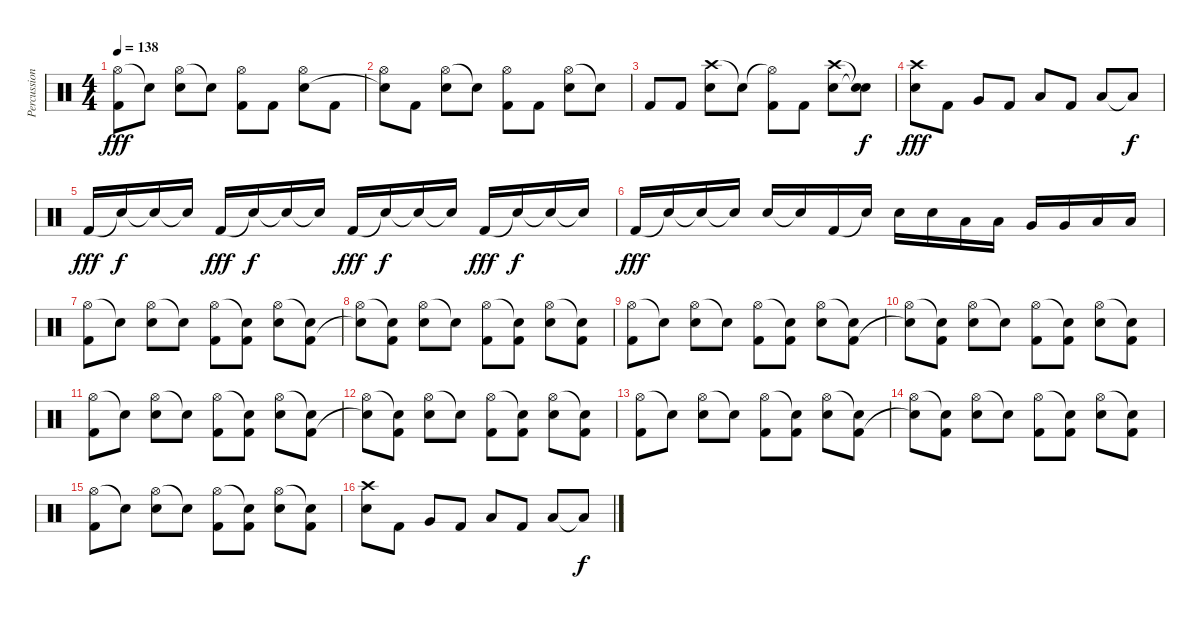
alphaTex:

\track ("Percussion" "Percussion") {instrument percussion}
\staff {score}
\articulation defaults
\ts (4 4)
\tempo 138
\clef neutral
\ks c
("Hi-Hat (open)" "Kick (hit) 2").8{dy fff} "Snare (hit)"{t}.8 ("Hi-Hat (open)" "Electric Snare (hit)").8 "Snare (hit)"{t}.8 ("Hi-Hat (open)" "Kick (hit) 2").8 "Kick (hit) 2".8 ("Hi-Hat (open)" "Electric Snare (hit)").8 "Kick (hit) 2".8 |
("Hi-Hat (open)" "Snare (hit)"{t}).8 "Kick (hit) 2".8 ("Hi-Hat (open)" "Electric Snare (hit)").8 "Snare (hit)"{t}.8 ("Hi-Hat (open)" "Kick (hit) 2").8 "Kick (hit) 2".8 ("Hi-Hat (open)" "Electric Snare (hit)").8 "Snare (hit)"{t}.8 |
"Kick (hit) 2".8 "Kick (hit) 2".8 ("Crash high (hit)" "Electric Snare (hit)").8 "Snare (hit)"{t}.8 ("Hi-Hat (open)"{t} "Kick (hit) 2").8 "Kick (hit) 2".8 ("Crash high (hit)" "Electric Snare (hit)").8 ("Snare (hit)"{t} "Snare (hit)"{t}).8{dy f} |
("Crash high (hit)" "Electric Snare (hit)").8{dy fff} "Kick (hit) 2".8 "Very Low Tom (hit)".8 "Kick (hit) 2".8 "Low Floor Tom (hit)".8 "Kick (hit) 2".8 "Low Floor Tom (hit)".8 "Low Floor Tom (hit)"{t}.8{dy f} |
"Kick (hit) 2".16{dy fff} "Snare (hit)"{t}.16{dy f} "Snare (hit)"{t}.16 "Snare (hit)"{t}.16 "Kick (hit) 2".16{dy fff} "Snare (hit)"{t}.16{dy f} "Snare (hit)"{t}.16 "Snare (hit)"{t}.16 "Kick (hit) 2".16{dy fff} "Snare (hit)"{t}.16{dy f} "Snare (hit)"{t}.16 "Snare (hit)"{t}.16 "Kick (hit) 2".16{dy fff} "Snare (hit)"{t}.16{dy f} "Snare (hit)"{t}.16 "Snare (hit)"{t}.16 |
"Kick (hit) 2".16{dy fff} "Snare (hit)"{t}.16 "Snare (hit)"{t}.16 "Snare (hit)"{t}.16 "Electric Snare (hit)".16 "Snare (hit)"{t}.16 "Kick (hit) 2".16 "Snare (hit)"{t}.16 "Electric Snare (hit)".16 "Electric Snare (hit)".16 "Low Floor Tom (hit)".16 "Low Floor Tom (hit)".16 "Very Low Tom (hit)".16 "Very Low Tom (hit)".16 "Low Floor Tom (hit)".16 "Low Floor Tom (hit)".16 |
("Hi-Hat (open)" "Kick (hit) 2").8 "Snare (hit)"{t}.8 ("Hi-Hat (open)" "Electric Snare (hit)").8 "Snare (hit)"{t}.8 ("Hi-Hat (open)" "Kick (hit) 2").8 ("Snare (hit)"{t} "Kick (hit) 2").8 ("Hi-Hat (open)" "Electric Snare (hit)").8 ("Snare (hit)"{t} "Kick (hit) 2").8 |
("Hi-Hat (open)" "Snare (hit)"{t}).8 ("Snare (hit)"{t} "Kick (hit) 2").8 ("Hi-Hat (open)" "Electric Snare (hit)").8 "Snare (hit)"{t}.8 ("Hi-Hat (open)" "Kick (hit) 2").8 ("Snare (hit)"{t} "Kick (hit) 2").8 ("Hi-Hat (open)" "Electric Snare (hit)").8 ("Snare (hit)"{t} "Kick (hit) 2").8 |
("Hi-Hat (open)" "Kick (hit) 2").8 "Snare (hit)"{t}.8 ("Hi-Hat (open)" "Electric Snare (hit)").8 "Snare (hit)"{t}.8 ("Hi-Hat (open)" "Kick (hit) 2").8 ("Snare (hit)"{t} "Kick (hit) 2").8 ("Hi-Hat (open)" "Electric Snare (hit)").8 ("Snare (hit)"{t} "Kick (hit) 2").8 |
("Hi-Hat (open)" "Snare (hit)"{t}).8 ("Snare (hit)"{t} "Kick (hit) 2").8 ("Hi-Hat (open)" "Electric Snare (hit)").8 "Snare (hit)"{t}.8 ("Hi-Hat (open)" "Kick (hit) 2").8 ("Snare (hit)"{t} "Kick (hit) 2").8 ("Hi-Hat (open)" "Electric Snare (hit)").8 ("Snare (hit)"{t} "Kick (hit) 2").8 |
("Hi-Hat (open)" "Kick (hit) 2").8 "Snare (hit)"{t}.8 ("Hi-Hat (open)" "Electric Snare (hit)").8 "Snare (hit)"{t}.8 ("Hi-Hat (open)" "Kick (hit) 2").8 ("Snare (hit)"{t} "Kick (hit) 2").8 ("Hi-Hat (open)" "Electric Snare (hit)").8 ("Snare (hit)"{t} "Kick (hit) 2").8 |
("Hi-Hat (open)" "Snare (hit)"{t}).8 ("Snare (hit)"{t} "Kick (hit) 2").8 ("Hi-Hat (open)" "Electric Snare (hit)").8 "Snare (hit)"{t}.8 ("Hi-Hat (open)" "Kick (hit) 2").8 ("Snare (hit)"{t} "Kick (hit) 2").8 ("Hi-Hat (open)" "Electric Snare (hit)").8 ("Snare (hit)"{t} "Kick (hit) 2").8 |
("Hi-Hat (open)" "Kick (hit) 2").8 "Snare (hit)"{t}.8 ("Hi-Hat (open)" "Electric Snare (hit)").8 "Snare (hit)"{t}.8 ("Hi-Hat (open)" "Kick (hit) 2").8 ("Snare (hit)"{t} "Kick (hit) 2").8 ("Hi-Hat (open)" "Electric Snare (hit)").8 ("Snare (hit)"{t} "Kick (hit) 2").8 |
("Hi-Hat (open)" "Snare (hit)"{t}).8 ("Snare (hit)"{t} "Kick (hit) 2").8 ("Hi-Hat (open)" "Electric Snare (hit)").8 "Snare (hit)"{t}.8 ("Hi-Hat (open)" "Kick (hit) 2").8 ("Snare (hit)"{t} "Kick (hit) 2").8 ("Hi-Hat (open)" "Electric Snare (hit)").8 ("Snare (hit)"{t} "Kick (hit) 2").8 |
("Hi-Hat (open)" "Kick (hit) 2").8 "Snare (hit)"{t}.8 ("Hi-Hat (open)" "Electric Snare (hit)").8 "Snare (hit)"{t}.8 ("Hi-Hat (open)" "Kick (hit) 2").8 ("Snare (hit)"{t} "Kick (hit) 2").8 ("Hi-Hat (open)" "Electric Snare (hit)").8 ("Snare (hit)"{t} "Kick (hit) 2").8 |
("Crash high (hit)" "Electric Snare (hit)").8 "Kick (hit) 2".8 "Very Low Tom (hit)".8 "Kick (hit) 2".8 "Low Floor Tom (hit)".8 "Kick (hit) 2".8 "Low Floor Tom (hit)".8 "Low Floor Tom (hit)"{t}.8{dy f}
